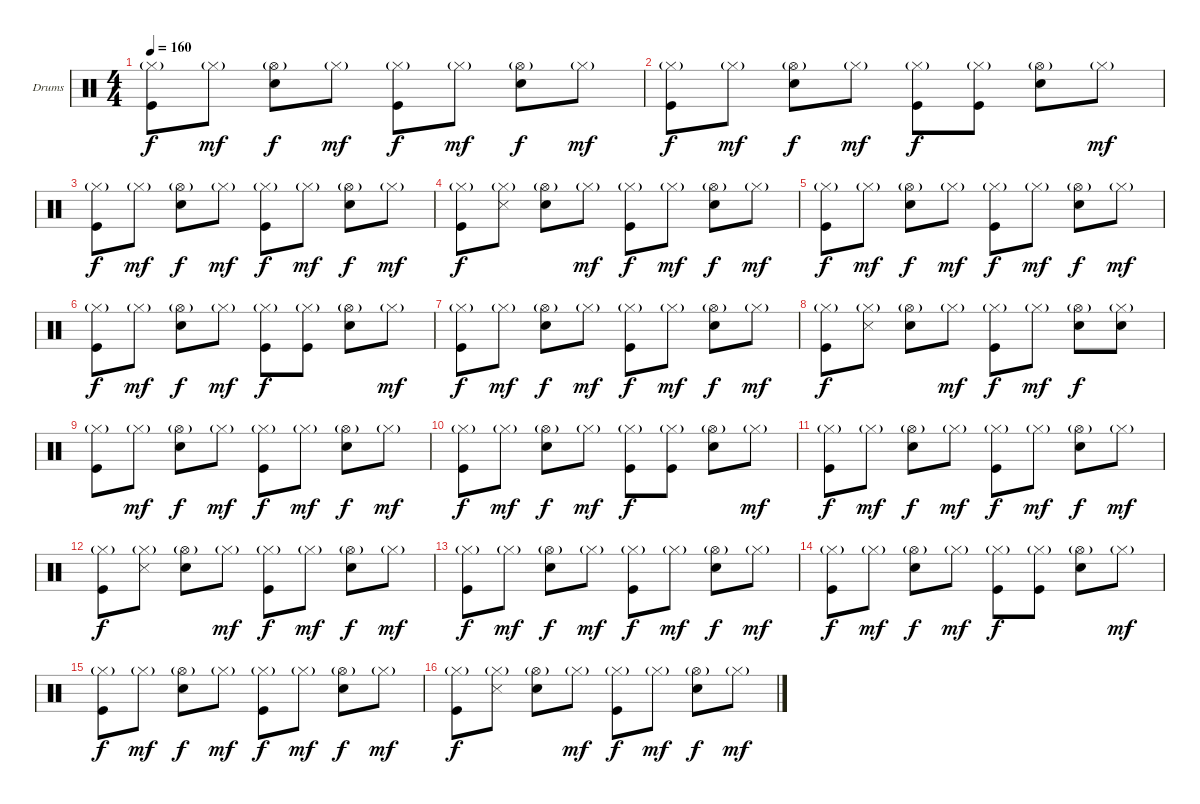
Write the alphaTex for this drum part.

\bracketExtendMode groupsimilarinstruments
\firstSystemTrackNameOrientation horizontal
\otherSystemsTrackNameOrientation horizontal
\track ("Ударные" "Drums") {instrument percussion}
\staff {score}
\articulation defaults
\ts (4 4)
\tempo 160
\clef neutral
\ks c
("Hi-Hat (closed)"{g} "Kick (hit)").8{dy f} "Hi-Hat (closed)"{g}.8{dy mf} ("Hi-Hat (open)"{g} "Snare (hit) 2").8{dy f} "Hi-Hat (closed)"{g}.8{dy mf} ("Hi-Hat (closed)"{g} "Kick (hit)").8{dy f} "Hi-Hat (closed)"{g}.8{dy mf} ("Hi-Hat (open)"{g} "Snare (hit) 2").8{dy f} "Hi-Hat (closed)"{g}.8{dy mf} |
("Hi-Hat (closed)"{g} "Kick (hit)").8{dy f} "Hi-Hat (closed)"{g}.8{dy mf} ("Hi-Hat (open)"{g} "Snare (hit) 2").8{dy f} "Hi-Hat (closed)"{g}.8{dy mf} ("Hi-Hat (closed)"{g} "Kick (hit)").8{dy f} ("Hi-Hat (closed)"{g} "Kick (hit)").8 ("Hi-Hat (open)"{g} "Snare (hit) 2").8 "Hi-Hat (closed)"{g}.8{dy mf} |
("Hi-Hat (closed)"{g} "Kick (hit)").8{dy f} "Hi-Hat (closed)"{g}.8{dy mf} ("Hi-Hat (open)"{g} "Snare (hit) 2").8{dy f} "Hi-Hat (closed)"{g}.8{dy mf} ("Hi-Hat (closed)"{g} "Kick (hit)").8{dy f} "Hi-Hat (closed)"{g}.8{dy mf} ("Hi-Hat (open)"{g} "Snare (hit) 2").8{dy f} "Hi-Hat (closed)"{g}.8{dy mf} |
("Hi-Hat (closed)"{g} "Kick (hit)").8{dy f} ("Hi-Hat (closed)"{g} "Snare (side stick) 3").8 ("Hi-Hat (open)"{g} "Snare (hit) 2").8 "Hi-Hat (closed)"{g}.8{dy mf} ("Hi-Hat (closed)"{g} "Kick (hit)").8{dy f} "Hi-Hat (closed)"{g}.8{dy mf} ("Hi-Hat (open)"{g} "Snare (hit) 2").8{dy f} "Hi-Hat (closed)"{g}.8{dy mf} |
("Hi-Hat (closed)"{g} "Kick (hit)").8{dy f} "Hi-Hat (closed)"{g}.8{dy mf} ("Hi-Hat (open)"{g} "Snare (hit) 2").8{dy f} "Hi-Hat (closed)"{g}.8{dy mf} ("Hi-Hat (closed)"{g} "Kick (hit)").8{dy f} "Hi-Hat (closed)"{g}.8{dy mf} ("Hi-Hat (open)"{g} "Snare (hit) 2").8{dy f} "Hi-Hat (closed)"{g}.8{dy mf} |
("Hi-Hat (closed)"{g} "Kick (hit)").8{dy f} "Hi-Hat (closed)"{g}.8{dy mf} ("Hi-Hat (open)"{g} "Snare (hit) 2").8{dy f} "Hi-Hat (closed)"{g}.8{dy mf} ("Hi-Hat (closed)"{g} "Kick (hit)").8{dy f} ("Hi-Hat (closed)"{g} "Kick (hit)").8 ("Hi-Hat (open)"{g} "Snare (hit) 2").8 "Hi-Hat (closed)"{g}.8{dy mf} |
("Hi-Hat (closed)"{g} "Kick (hit)").8{dy f} "Hi-Hat (closed)"{g}.8{dy mf} ("Hi-Hat (open)"{g} "Snare (hit) 2").8{dy f} "Hi-Hat (closed)"{g}.8{dy mf} ("Hi-Hat (closed)"{g} "Kick (hit)").8{dy f} "Hi-Hat (closed)"{g}.8{dy mf} ("Hi-Hat (open)"{g} "Snare (hit) 2").8{dy f} "Hi-Hat (closed)"{g}.8{dy mf} |
("Hi-Hat (closed)"{g} "Kick (hit)").8{dy f} ("Hi-Hat (closed)"{g} "Snare (side stick) 3").8 ("Hi-Hat (open)"{g} "Snare (hit) 2").8 "Hi-Hat (closed)"{g}.8{dy mf} ("Hi-Hat (closed)"{g} "Kick (hit)").8{dy f} "Hi-Hat (closed)"{g}.8{dy mf} ("Hi-Hat (open)"{g} "Snare (hit) 2").8{dy f} ("Hi-Hat (closed)"{g} "Snare (hit) 2").8 |
("Hi-Hat (closed)"{g} "Kick (hit)").8 "Hi-Hat (closed)"{g}.8{dy mf} ("Hi-Hat (open)"{g} "Snare (hit) 2").8{dy f} "Hi-Hat (closed)"{g}.8{dy mf} ("Hi-Hat (closed)"{g} "Kick (hit)").8{dy f} "Hi-Hat (closed)"{g}.8{dy mf} ("Hi-Hat (open)"{g} "Snare (hit) 2").8{dy f} "Hi-Hat (closed)"{g}.8{dy mf} |
("Hi-Hat (closed)"{g} "Kick (hit)").8{dy f} "Hi-Hat (closed)"{g}.8{dy mf} ("Hi-Hat (open)"{g} "Snare (hit) 2").8{dy f} "Hi-Hat (closed)"{g}.8{dy mf} ("Hi-Hat (closed)"{g} "Kick (hit)").8{dy f} ("Hi-Hat (closed)"{g} "Kick (hit)").8 ("Hi-Hat (open)"{g} "Snare (hit) 2").8 "Hi-Hat (closed)"{g}.8{dy mf} |
("Hi-Hat (closed)"{g} "Kick (hit)").8{dy f} "Hi-Hat (closed)"{g}.8{dy mf} ("Hi-Hat (open)"{g} "Snare (hit) 2").8{dy f} "Hi-Hat (closed)"{g}.8{dy mf} ("Hi-Hat (closed)"{g} "Kick (hit)").8{dy f} "Hi-Hat (closed)"{g}.8{dy mf} ("Hi-Hat (open)"{g} "Snare (hit) 2").8{dy f} "Hi-Hat (closed)"{g}.8{dy mf} |
("Hi-Hat (closed)"{g} "Kick (hit)").8{dy f} ("Hi-Hat (closed)"{g} "Snare (side stick) 3").8 ("Hi-Hat (open)"{g} "Snare (hit) 2").8 "Hi-Hat (closed)"{g}.8{dy mf} ("Hi-Hat (closed)"{g} "Kick (hit)").8{dy f} "Hi-Hat (closed)"{g}.8{dy mf} ("Hi-Hat (open)"{g} "Snare (hit) 2").8{dy f} "Hi-Hat (closed)"{g}.8{dy mf} |
("Hi-Hat (closed)"{g} "Kick (hit)").8{dy f} "Hi-Hat (closed)"{g}.8{dy mf} ("Hi-Hat (open)"{g} "Snare (hit) 2").8{dy f} "Hi-Hat (closed)"{g}.8{dy mf} ("Hi-Hat (closed)"{g} "Kick (hit)").8{dy f} "Hi-Hat (closed)"{g}.8{dy mf} ("Hi-Hat (open)"{g} "Snare (hit) 2").8{dy f} "Hi-Hat (closed)"{g}.8{dy mf} |
("Hi-Hat (closed)"{g} "Kick (hit)").8{dy f} "Hi-Hat (closed)"{g}.8{dy mf} ("Hi-Hat (open)"{g} "Snare (hit) 2").8{dy f} "Hi-Hat (closed)"{g}.8{dy mf} ("Hi-Hat (closed)"{g} "Kick (hit)").8{dy f} ("Hi-Hat (closed)"{g} "Kick (hit)").8 ("Hi-Hat (open)"{g} "Snare (hit) 2").8 "Hi-Hat (closed)"{g}.8{dy mf} |
("Hi-Hat (closed)"{g} "Kick (hit)").8{dy f} "Hi-Hat (closed)"{g}.8{dy mf} ("Hi-Hat (open)"{g} "Snare (hit) 2").8{dy f} "Hi-Hat (closed)"{g}.8{dy mf} ("Hi-Hat (closed)"{g} "Kick (hit)").8{dy f} "Hi-Hat (closed)"{g}.8{dy mf} ("Hi-Hat (open)"{g} "Snare (hit) 2").8{dy f} "Hi-Hat (closed)"{g}.8{dy mf} |
("Hi-Hat (closed)"{g} "Kick (hit)").8{dy f} ("Hi-Hat (closed)"{g} "Snare (side stick) 3").8 ("Hi-Hat (open)"{g} "Snare (hit) 2").8 "Hi-Hat (closed)"{g}.8{dy mf} ("Hi-Hat (closed)"{g} "Kick (hit)").8{dy f} "Hi-Hat (closed)"{g}.8{dy mf} ("Hi-Hat (open)"{g} "Snare (hit) 2").8{dy f} "Hi-Hat (closed)"{g}.8{dy mf}
